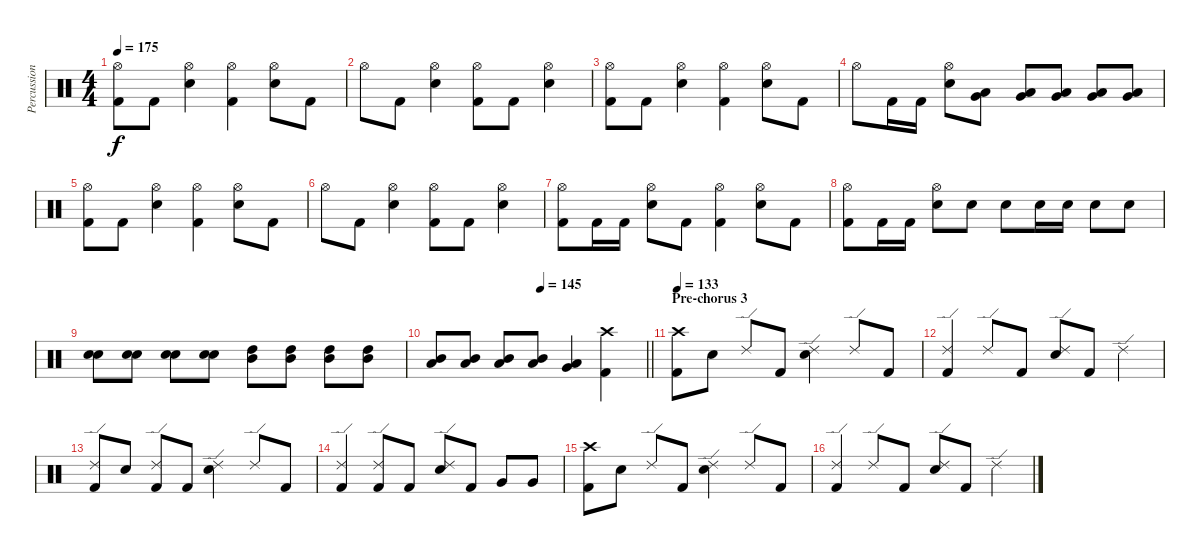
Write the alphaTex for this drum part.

\track ("Percussion" "Percussion") {instrument percussion}
\staff {score}
\articulation defaults
\ts (4 4)
\tempo 175
\clef neutral
\ks c
("Hi-Hat (open)" "Kick (hit) 2").8{dy f} "Kick (hit) 2".8 ("Hi-Hat (open)" "Electric Snare (hit)").4 ("Hi-Hat (open)" "Kick (hit) 2").4 ("Hi-Hat (open)" "Electric Snare (hit)").8 "Kick (hit) 2".8 |
"Hi-Hat (open)".8 "Kick (hit) 2".8 ("Hi-Hat (open)" "Electric Snare (hit)").4 ("Hi-Hat (open)" "Kick (hit) 2").8 "Kick (hit) 2".8 ("Hi-Hat (open)" "Electric Snare (hit)").4 |
("Hi-Hat (open)" "Kick (hit) 2").8 "Kick (hit) 2".8 ("Hi-Hat (open)" "Electric Snare (hit)").4 ("Hi-Hat (open)" "Kick (hit) 2").4 ("Hi-Hat (open)" "Electric Snare (hit)").8 "Kick (hit) 2".8 |
"Hi-Hat (open)".8 "Kick (hit) 2".16 "Kick (hit) 2".16 ("Hi-Hat (open)" "Electric Snare (hit)").8 ("Low Tom (hit)" "Very Low Tom (hit)").8 ("Low Tom (hit)" "Very Low Tom (hit)").8 ("Low Tom (hit)" "Very Low Tom (hit)").8 ("Low Tom (hit)" "Very Low Tom (hit)").8 ("Low Tom (hit)" "Very Low Tom (hit)").8 |
("Hi-Hat (open)" "Kick (hit) 2").8 "Kick (hit) 2".8 ("Hi-Hat (open)" "Electric Snare (hit)").4 ("Hi-Hat (open)" "Kick (hit) 2").4 ("Hi-Hat (open)" "Electric Snare (hit)").8 "Kick (hit) 2".8 |
"Hi-Hat (open)".8 "Kick (hit) 2".8 ("Hi-Hat (open)" "Electric Snare (hit)").4 ("Hi-Hat (open)" "Kick (hit) 2").8 "Kick (hit) 2".8 ("Hi-Hat (open)" "Electric Snare (hit)").4 |
("Hi-Hat (open)" "Kick (hit) 2").8 "Kick (hit) 2".16 "Kick (hit) 2".16 ("Hi-Hat (open)" "Electric Snare (hit)").8 "Kick (hit) 2".8 ("Hi-Hat (open)" "Kick (hit) 2").4 ("Hi-Hat (open)" "Electric Snare (hit)").8 "Kick (hit) 2".8 |
("Hi-Hat (open)" "Kick (hit) 2").8 "Kick (hit) 2".16 "Kick (hit) 2".16 ("Hi-Hat (open)" "Electric Snare (hit)").8 "Electric Snare (hit)".8 "Electric Snare (hit)".8 "Electric Snare (hit)".16 "Electric Snare (hit)".16 "Electric Snare (hit)".8 "Electric Snare (hit)".8 |
("Electric Snare (hit)" "Electric Snare (hit)").8 ("Electric Snare (hit)" "Electric Snare (hit)").8 ("Electric Snare (hit)" "Electric Snare (hit)").8 ("Electric Snare (hit)" "Electric Snare (hit)").8 ("High Tom (hit)" "Mid Tom (hit)").8 ("High Tom (hit)" "Mid Tom (hit)").8 ("High Tom (hit)" "Mid Tom (hit)").8 ("High Tom (hit)" "Mid Tom (hit)").8 |
\tempo (145 0.5)
\barLineRight lightlight
("Mid Tom (hit)" "Low Tom (hit)").8 ("Mid Tom (hit)" "Low Tom (hit)").8 ("Mid Tom (hit)" "Low Tom (hit)").8 ("Mid Tom (hit)" "Low Tom (hit)").8 ("Low Tom (hit)" "Very Low Tom (hit)").4 ("Crash high (hit)" "Kick (hit) 2").4 |
\section ("" "Pre-chorus 3")
\tempo 133
("Crash high (hit)" "Kick (hit) 2").8 "Electric Snare (hit)".8 "Ride (edge) 2".8 "Kick (hit) 2".8 ("Ride (edge) 2" "Electric Snare (hit)").4 "Ride (edge) 2".8 "Kick (hit) 2".8 |
("Ride (edge) 2" "Kick (hit) 2").4 "Ride (edge) 2".8 "Kick (hit) 2".8 ("Ride (edge) 2" "Electric Snare (hit)").8 "Kick (hit) 2".8 "Ride (edge) 2".4 |
("Ride (edge) 2" "Kick (hit) 2").8 "Electric Snare (hit)".8 ("Ride (edge) 2" "Kick (hit) 2").8 "Kick (hit) 2".8 ("Ride (edge) 2" "Electric Snare (hit)").4 "Ride (edge) 2".8 "Kick (hit) 2".8 |
("Ride (edge) 2" "Kick (hit) 2").4 ("Ride (edge) 2" "Kick (hit) 2").8 "Kick (hit) 2".8 ("Ride (edge) 2" "Electric Snare (hit)").8 "Kick (hit) 2".8 "Very Low Tom (hit)".8 "Very Low Tom (hit)".8 |
("Crash high (hit)" "Kick (hit) 2").8 "Electric Snare (hit)".8 "Ride (edge) 2".8 "Kick (hit) 2".8 ("Ride (edge) 2" "Electric Snare (hit)").4 "Ride (edge) 2".8 "Kick (hit) 2".8 |
("Ride (edge) 2" "Kick (hit) 2").4 "Ride (edge) 2".8 "Kick (hit) 2".8 ("Ride (edge) 2" "Electric Snare (hit)").8 "Kick (hit) 2".8 "Ride (edge) 2".4
